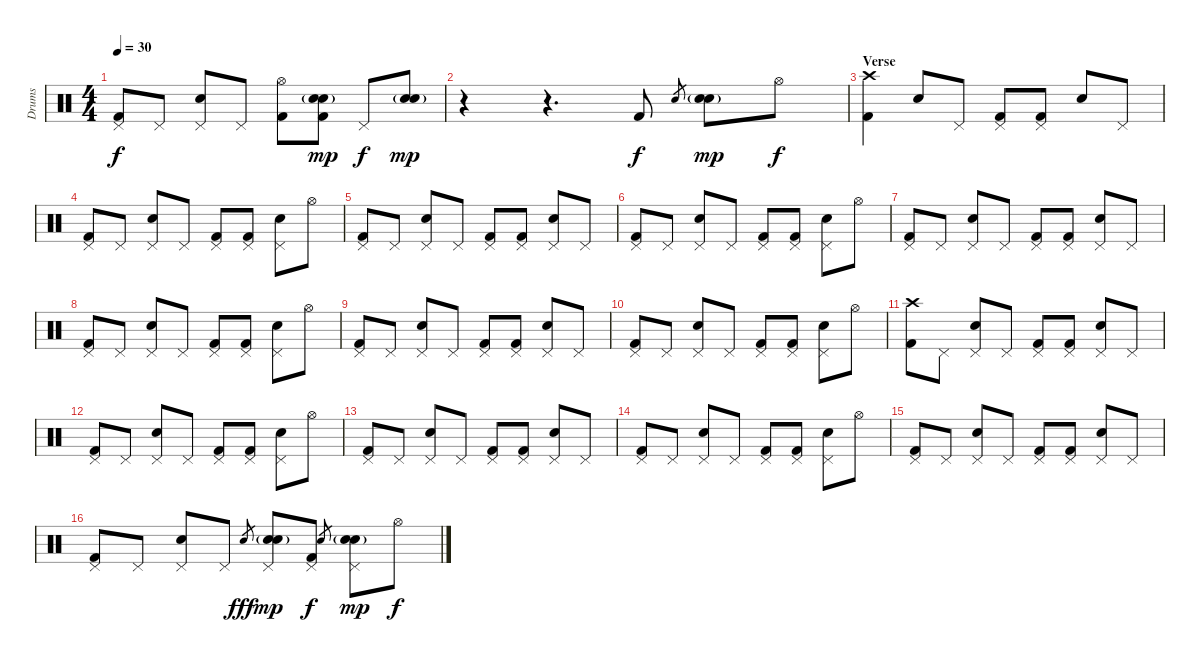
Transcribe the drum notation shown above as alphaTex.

\track ("Drums" "Drums") {instrument percussion}
\staff {score}
\articulation defaults
\ts (4 4)
\tempo 30
\clef neutral
\ks c
("Pedal Hi-Hat (hit)" "Kick (hit) 2").8{dy f} "Pedal Hi-Hat (hit)".8 ("Pedal Hi-Hat (hit)" "Snare (hit) 2").8 "Pedal Hi-Hat (hit)".8 ("Hi-Hat (open)" "Kick (hit) 2").8 ("Snare (hit) 2" "Electric Snare (hit)"{g} "Kick (hit) 2").8{dy mp} "Pedal Hi-Hat (hit)".8{dy f} ("Snare (hit) 2" "Electric Snare (hit)"{g}).8{dy mp} |
r.4 r.4{d} "Kick (hit) 2".8{dy f} "Snare (hit) 2".8{gr} ("Snare (hit) 2" "Electric Snare (hit)"{g}).8{dy mp} "Hi-Hat (open)".8{dy f} |
\section ("" "Verse")
("Crash high (hit)" "Kick (hit) 2").4 "Snare (hit) 2".8 "Pedal Hi-Hat (hit)".8 ("Pedal Hi-Hat (hit)" "Kick (hit) 2").8 ("Pedal Hi-Hat (hit)" "Kick (hit) 2").8 "Snare (hit) 2".8 "Pedal Hi-Hat (hit)".8 |
("Pedal Hi-Hat (hit)" "Kick (hit) 2").8 "Pedal Hi-Hat (hit)".8 ("Pedal Hi-Hat (hit)" "Snare (hit) 2").8 "Pedal Hi-Hat (hit)".8 ("Pedal Hi-Hat (hit)" "Kick (hit) 2").8 ("Pedal Hi-Hat (hit)" "Kick (hit) 2").8 ("Pedal Hi-Hat (hit)" "Snare (hit) 2").8 "Hi-Hat (open)".8 |
("Pedal Hi-Hat (hit)" "Kick (hit) 2").8 "Pedal Hi-Hat (hit)".8 ("Pedal Hi-Hat (hit)" "Snare (hit) 2").8 "Pedal Hi-Hat (hit)".8 ("Pedal Hi-Hat (hit)" "Kick (hit) 2").8 ("Pedal Hi-Hat (hit)" "Kick (hit) 2").8 ("Pedal Hi-Hat (hit)" "Snare (hit) 2").8 "Pedal Hi-Hat (hit)".8 |
("Pedal Hi-Hat (hit)" "Kick (hit) 2").8 "Pedal Hi-Hat (hit)".8 ("Pedal Hi-Hat (hit)" "Snare (hit) 2").8 "Pedal Hi-Hat (hit)".8 ("Pedal Hi-Hat (hit)" "Kick (hit) 2").8 ("Pedal Hi-Hat (hit)" "Kick (hit) 2").8 ("Pedal Hi-Hat (hit)" "Snare (hit) 2").8 "Hi-Hat (open)".8 |
("Pedal Hi-Hat (hit)" "Kick (hit) 2").8 "Pedal Hi-Hat (hit)".8 ("Pedal Hi-Hat (hit)" "Snare (hit) 2").8 "Pedal Hi-Hat (hit)".8 ("Pedal Hi-Hat (hit)" "Kick (hit) 2").8 ("Pedal Hi-Hat (hit)" "Kick (hit) 2").8 ("Pedal Hi-Hat (hit)" "Snare (hit) 2").8 "Pedal Hi-Hat (hit)".8 |
("Pedal Hi-Hat (hit)" "Kick (hit) 2").8 "Pedal Hi-Hat (hit)".8 ("Pedal Hi-Hat (hit)" "Snare (hit) 2").8 "Pedal Hi-Hat (hit)".8 ("Pedal Hi-Hat (hit)" "Kick (hit) 2").8 ("Pedal Hi-Hat (hit)" "Kick (hit) 2").8 ("Pedal Hi-Hat (hit)" "Snare (hit) 2").8 "Hi-Hat (open)".8 |
("Pedal Hi-Hat (hit)" "Kick (hit) 2").8 "Pedal Hi-Hat (hit)".8 ("Pedal Hi-Hat (hit)" "Snare (hit) 2").8 "Pedal Hi-Hat (hit)".8 ("Pedal Hi-Hat (hit)" "Kick (hit) 2").8 ("Pedal Hi-Hat (hit)" "Kick (hit) 2").8 ("Pedal Hi-Hat (hit)" "Snare (hit) 2").8 "Pedal Hi-Hat (hit)".8 |
("Pedal Hi-Hat (hit)" "Kick (hit) 2").8 "Pedal Hi-Hat (hit)".8 ("Pedal Hi-Hat (hit)" "Snare (hit) 2").8 "Pedal Hi-Hat (hit)".8 ("Pedal Hi-Hat (hit)" "Kick (hit) 2").8 ("Pedal Hi-Hat (hit)" "Kick (hit) 2").8 ("Pedal Hi-Hat (hit)" "Snare (hit) 2").8 "Hi-Hat (open)".8 |
("Crash high (hit)" "Kick (hit) 2").8 "Pedal Hi-Hat (hit)".8 ("Pedal Hi-Hat (hit)" "Snare (hit) 2").8 "Pedal Hi-Hat (hit)".8 ("Pedal Hi-Hat (hit)" "Kick (hit) 2").8 ("Pedal Hi-Hat (hit)" "Kick (hit) 2").8 ("Pedal Hi-Hat (hit)" "Snare (hit) 2").8 "Pedal Hi-Hat (hit)".8 |
("Pedal Hi-Hat (hit)" "Kick (hit) 2").8 "Pedal Hi-Hat (hit)".8 ("Pedal Hi-Hat (hit)" "Snare (hit) 2").8 "Pedal Hi-Hat (hit)".8 ("Pedal Hi-Hat (hit)" "Kick (hit) 2").8 ("Pedal Hi-Hat (hit)" "Kick (hit) 2").8 ("Pedal Hi-Hat (hit)" "Snare (hit) 2").8 "Hi-Hat (open)".8 |
("Pedal Hi-Hat (hit)" "Kick (hit) 2").8 "Pedal Hi-Hat (hit)".8 ("Pedal Hi-Hat (hit)" "Snare (hit) 2").8 "Pedal Hi-Hat (hit)".8 ("Pedal Hi-Hat (hit)" "Kick (hit) 2").8 ("Pedal Hi-Hat (hit)" "Kick (hit) 2").8 ("Pedal Hi-Hat (hit)" "Snare (hit) 2").8 "Pedal Hi-Hat (hit)".8 |
("Pedal Hi-Hat (hit)" "Kick (hit) 2").8 "Pedal Hi-Hat (hit)".8 ("Pedal Hi-Hat (hit)" "Snare (hit) 2").8 "Pedal Hi-Hat (hit)".8 ("Pedal Hi-Hat (hit)" "Kick (hit) 2").8 ("Pedal Hi-Hat (hit)" "Kick (hit) 2").8 ("Pedal Hi-Hat (hit)" "Snare (hit) 2").8 "Hi-Hat (open)".8 |
("Pedal Hi-Hat (hit)" "Kick (hit) 2").8 "Pedal Hi-Hat (hit)".8 ("Pedal Hi-Hat (hit)" "Snare (hit) 2").8 "Pedal Hi-Hat (hit)".8 ("Pedal Hi-Hat (hit)" "Kick (hit) 2").8 ("Pedal Hi-Hat (hit)" "Kick (hit) 2").8 ("Pedal Hi-Hat (hit)" "Snare (hit) 2").8 "Pedal Hi-Hat (hit)".8 |
("Pedal Hi-Hat (hit)" "Kick (hit) 2").8 "Pedal Hi-Hat (hit)".8 ("Pedal Hi-Hat (hit)" "Snare (hit) 2").8 "Pedal Hi-Hat (hit)".8 "Snare (hit) 2".8{gr dy fff} ("Pedal Hi-Hat (hit)" "Snare (hit) 2" "Electric Snare (hit)"{g}).8{dy mp} ("Pedal Hi-Hat (hit)" "Kick (hit) 2").8{dy f} "Snare (hit) 2".8{gr} ("Pedal Hi-Hat (hit)" "Snare (hit) 2" "Electric Snare (hit)"{g}).8{dy mp} "Hi-Hat (open)".8{dy f}
